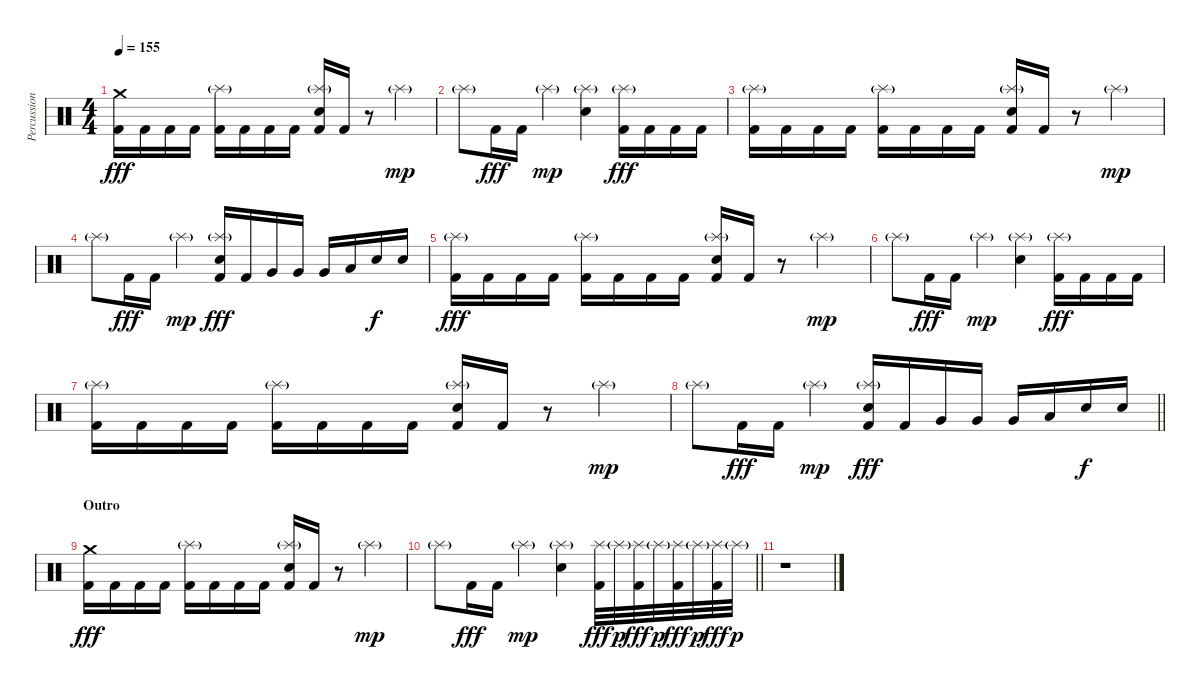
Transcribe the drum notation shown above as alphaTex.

\track ("Percussion" "Percussion") {instrument percussion}
\staff {score}
\articulation defaults
\ts (4 4)
\tempo 155
\clef neutral
\ks c
("Crash medium (hit)" "Kick (hit) 2").16{dy fff} "Kick (hit) 2".16 "Kick (hit) 2".16 "Kick (hit) 2".16 ("Splash (hit)"{g} "Kick (hit) 2").16 "Kick (hit) 2".16 "Kick (hit) 2".16 "Kick (hit) 2".16 ("Splash (hit)"{g} "Electric Snare (hit)" "Kick (hit) 2").16 "Kick (hit) 2".16 r.8 "Splash (hit)"{g}.4{dy mp} |
"Splash (hit)"{g}.8 "Kick (hit) 2".16{dy fff} "Kick (hit) 2".16 "Splash (hit)"{g}.4{dy mp} ("Splash (hit)"{g} "Electric Snare (hit)").4 ("Splash (hit)"{g} "Kick (hit) 2").16{dy fff} "Kick (hit) 2".16 "Kick (hit) 2".16 "Kick (hit) 2".16 |
("Splash (hit)"{g} "Kick (hit) 2").16 "Kick (hit) 2".16 "Kick (hit) 2".16 "Kick (hit) 2".16 ("Splash (hit)"{g} "Kick (hit) 2").16 "Kick (hit) 2".16 "Kick (hit) 2".16 "Kick (hit) 2".16 ("Splash (hit)"{g} "Electric Snare (hit)" "Kick (hit) 2").16 "Kick (hit) 2".16 r.8 "Splash (hit)"{g}.4{dy mp} |
"Splash (hit)"{g}.8 "Kick (hit) 2".16{dy fff} "Kick (hit) 2".16 "Splash (hit)"{g}.4{dy mp} ("Splash (hit)"{g} "Electric Snare (hit)" "Kick (hit) 2").16{dy fff} "Kick (hit) 2".16 "Very Low Tom (hit)".16 "Very Low Tom (hit)".16 "Very Low Tom (hit)".16 "Low Floor Tom (hit)".16 "Electric Snare (hit)".16{dy f} "Electric Snare (hit)".16 |
("Splash (hit)"{g} "Kick (hit) 2").16{dy fff} "Kick (hit) 2".16 "Kick (hit) 2".16 "Kick (hit) 2".16 ("Splash (hit)"{g} "Kick (hit) 2").16 "Kick (hit) 2".16 "Kick (hit) 2".16 "Kick (hit) 2".16 ("Splash (hit)"{g} "Electric Snare (hit)" "Kick (hit) 2").16 "Kick (hit) 2".16 r.8 "Splash (hit)"{g}.4{dy mp} |
"Splash (hit)"{g}.8 "Kick (hit) 2".16{dy fff} "Kick (hit) 2".16 "Splash (hit)"{g}.4{dy mp} ("Splash (hit)"{g} "Electric Snare (hit)").4 ("Splash (hit)"{g} "Kick (hit) 2").16{dy fff} "Kick (hit) 2".16 "Kick (hit) 2".16 "Kick (hit) 2".16 |
("Splash (hit)"{g} "Kick (hit) 2").16 "Kick (hit) 2".16 "Kick (hit) 2".16 "Kick (hit) 2".16 ("Splash (hit)"{g} "Kick (hit) 2").16 "Kick (hit) 2".16 "Kick (hit) 2".16 "Kick (hit) 2".16 ("Splash (hit)"{g} "Electric Snare (hit)" "Kick (hit) 2").16 "Kick (hit) 2".16 r.8 "Splash (hit)"{g}.4{dy mp} |
\barLineRight lightlight "Splash (hit)"{g}.8 "Kick (hit) 2".16{dy fff} "Kick (hit) 2".16 "Splash (hit)"{g}.4{dy mp}
("Splash (hit)"{g} "Electric Snare (hit)" "Kick (hit) 2").16{dy fff} "Kick (hit) 2".16 "Very Low Tom (hit)".16 "Very Low Tom (hit)".16 "Very Low Tom (hit)".16 "Low Floor Tom (hit)".16 "Electric Snare (hit)".16{dy f} "Electric Snare (hit)".16 |
\section ("" "Outro")
("Crash medium (hit)" "Kick (hit) 2").16{dy fff} "Kick (hit) 2".16 "Kick (hit) 2".16 "Kick (hit) 2".16 ("Splash (hit)"{g} "Kick (hit) 2").16 "Kick (hit) 2".16 "Kick (hit) 2".16 "Kick (hit) 2".16 ("Splash (hit)"{g} "Electric Snare (hit)" "Kick (hit) 2").16 "Kick (hit) 2".16 r.8 "Splash (hit)"{g}.4{dy mp} |
\barLineRight lightlight "Splash (hit)"{g}.8 "Kick (hit) 2".16{dy fff} "Kick (hit) 2".16 "Splash (hit)"{g}.4{dy mp}
("Splash (hit)"{g} "Electric Snare (hit)").4 ("Splash (hit)" "Kick (hit) 2").32{dy fff} "Splash (hit)"{g}.32{dy p} ("Splash (hit)" "Kick (hit) 2").32{dy fff} "Splash (hit)"{g}.32{dy p} ("Splash (hit)" "Kick (hit) 2").32{dy fff} "Splash (hit)"{g}.32{dy p} ("Splash (hit)" "Kick (hit) 2").32{dy fff} "Splash (hit)"{g}.32{dy p} |
r.1
